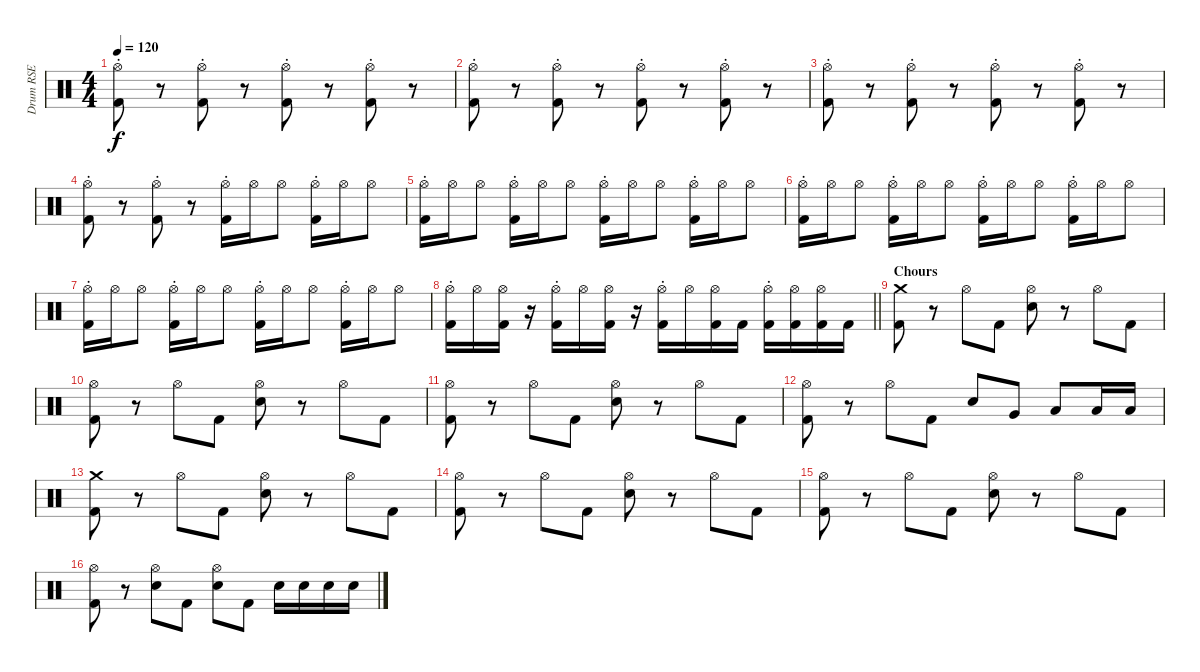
\track ("Drum RSE" "Drum RSE") {instrument percussion}
\staff {score}
\articulation defaults
\ts (4 4)
\tempo 120
\clef neutral
\ks c
("Hi-Hat (open)"{st} "Kick (hit) 2"{st}).8{dy f} r.8 ("Hi-Hat (open)"{st} "Kick (hit) 2"{st}).8 r.8 ("Hi-Hat (open)"{st} "Kick (hit) 2"{st}).8 r.8 ("Hi-Hat (open)"{st} "Kick (hit) 2"{st}).8 r.8 |
("Hi-Hat (open)"{st} "Kick (hit) 2"{st}).8 r.8 ("Hi-Hat (open)"{st} "Kick (hit) 2"{st}).8 r.8 ("Hi-Hat (open)"{st} "Kick (hit) 2"{st}).8 r.8 ("Hi-Hat (open)"{st} "Kick (hit) 2"{st}).8 r.8 |
("Hi-Hat (open)"{st} "Kick (hit) 2"{st}).8 r.8 ("Hi-Hat (open)"{st} "Kick (hit) 2"{st}).8 r.8 ("Hi-Hat (open)"{st} "Kick (hit) 2"{st}).8 r.8 ("Hi-Hat (open)"{st} "Kick (hit) 2"{st}).8 r.8 |
("Hi-Hat (open)"{st} "Kick (hit) 2"{st}).8 r.8 ("Hi-Hat (open)"{st} "Kick (hit) 2"{st}).8 r.8 ("Hi-Hat (open)"{st} "Kick (hit) 2"{st}).16 "Hi-Hat (open)".16 "Hi-Hat (open)".8 ("Hi-Hat (open)"{st} "Kick (hit) 2"{st}).16 "Hi-Hat (open)".16 "Hi-Hat (open)".8 |
("Hi-Hat (open)"{st} "Kick (hit) 2"{st}).16 "Hi-Hat (open)".16 "Hi-Hat (open)".8 ("Hi-Hat (open)"{st} "Kick (hit) 2"{st}).16 "Hi-Hat (open)".16 "Hi-Hat (open)".8 ("Hi-Hat (open)"{st} "Kick (hit) 2"{st}).16 "Hi-Hat (open)".16 "Hi-Hat (open)".8 ("Hi-Hat (open)"{st} "Kick (hit) 2"{st}).16 "Hi-Hat (open)".16 "Hi-Hat (open)".8 |
("Hi-Hat (open)"{st} "Kick (hit) 2"{st}).16 "Hi-Hat (open)".16 "Hi-Hat (open)".8 ("Hi-Hat (open)"{st} "Kick (hit) 2"{st}).16 "Hi-Hat (open)".16 "Hi-Hat (open)".8 ("Hi-Hat (open)"{st} "Kick (hit) 2"{st}).16 "Hi-Hat (open)".16 "Hi-Hat (open)".8 ("Hi-Hat (open)"{st} "Kick (hit) 2"{st}).16 "Hi-Hat (open)".16 "Hi-Hat (open)".8 |
("Hi-Hat (open)"{st} "Kick (hit) 2"{st}).16 "Hi-Hat (open)".16 "Hi-Hat (open)".8 ("Hi-Hat (open)"{st} "Kick (hit) 2"{st}).16 "Hi-Hat (open)".16 "Hi-Hat (open)".8 ("Hi-Hat (open)"{st} "Kick (hit) 2"{st}).16 "Hi-Hat (open)".16 "Hi-Hat (open)".8 ("Hi-Hat (open)"{st} "Kick (hit) 2"{st}).16 "Hi-Hat (open)".16 "Hi-Hat (open)".8 |
\barLineRight lightlight
("Hi-Hat (open)"{st} "Kick (hit) 2"{st}).16 "Hi-Hat (open)".16 ("Hi-Hat (open)" "Kick (hit) 2").16 r.16 ("Hi-Hat (open)"{st} "Kick (hit) 2"{st}).16 "Hi-Hat (open)".16 ("Hi-Hat (open)" "Kick (hit) 2").16 r.16 ("Hi-Hat (open)"{st} "Kick (hit) 2"{st}).16 "Hi-Hat (open)".16 ("Hi-Hat (open)" "Kick (hit) 2").16 "Kick (hit) 2".16 ("Hi-Hat (open)"{st} "Kick (hit) 2"{st}).16 ("Hi-Hat (open)" "Kick (hit) 2").16 ("Hi-Hat (open)" "Kick (hit) 2").16 "Kick (hit) 2".16 |
\section ("" "Chours")
("Crash medium (hit)" "Kick (hit) 2").8 r.8 "Hi-Hat (open)".8 "Kick (hit) 2".8 ("Hi-Hat (open)" "Snare (hit) 2").8 r.8 "Hi-Hat (open)".8 "Kick (hit) 2".8 |
("Hi-Hat (open)" "Kick (hit) 2").8 r.8 "Hi-Hat (open)".8 "Kick (hit) 2".8 ("Hi-Hat (open)" "Snare (hit) 2").8 r.8 "Hi-Hat (open)".8 "Kick (hit) 2".8 |
("Hi-Hat (open)" "Kick (hit) 2").8 r.8 "Hi-Hat (open)".8 "Kick (hit) 2".8 ("Hi-Hat (open)" "Snare (hit) 2").8 r.8 "Hi-Hat (open)".8 "Kick (hit) 2".8 |
("Hi-Hat (open)" "Kick (hit) 2").8 r.8 "Hi-Hat (open)".8 "Kick (hit) 2".8 "Snare (hit) 2".8 "Very Low Tom (hit)".8 "Low Tom (hit)".8 "Low Tom (hit)".16 "Low Tom (hit)".16 |
("Crash medium (hit)" "Kick (hit) 2").8 r.8 "Hi-Hat (open)".8 "Kick (hit) 2".8 ("Hi-Hat (open)" "Snare (hit) 2").8 r.8 "Hi-Hat (open)".8 "Kick (hit) 2".8 |
("Hi-Hat (open)" "Kick (hit) 2").8 r.8 "Hi-Hat (open)".8 "Kick (hit) 2".8 ("Hi-Hat (open)" "Snare (hit) 2").8 r.8 "Hi-Hat (open)".8 "Kick (hit) 2".8 |
("Hi-Hat (open)" "Kick (hit) 2").8 r.8 "Hi-Hat (open)".8 "Kick (hit) 2".8 ("Hi-Hat (open)" "Snare (hit) 2").8 r.8 "Hi-Hat (open)".8 "Kick (hit) 2".8 |
("Hi-Hat (open)" "Kick (hit) 2").8 r.8 ("Hi-Hat (open)" "Snare (hit) 2").8 "Kick (hit) 2".8 ("Hi-Hat (open)" "Snare (hit) 2").8 "Kick (hit) 2".8 "Snare (hit) 2".16 "Snare (hit) 2".16 "Snare (hit) 2".16 "Snare (hit) 2".16
